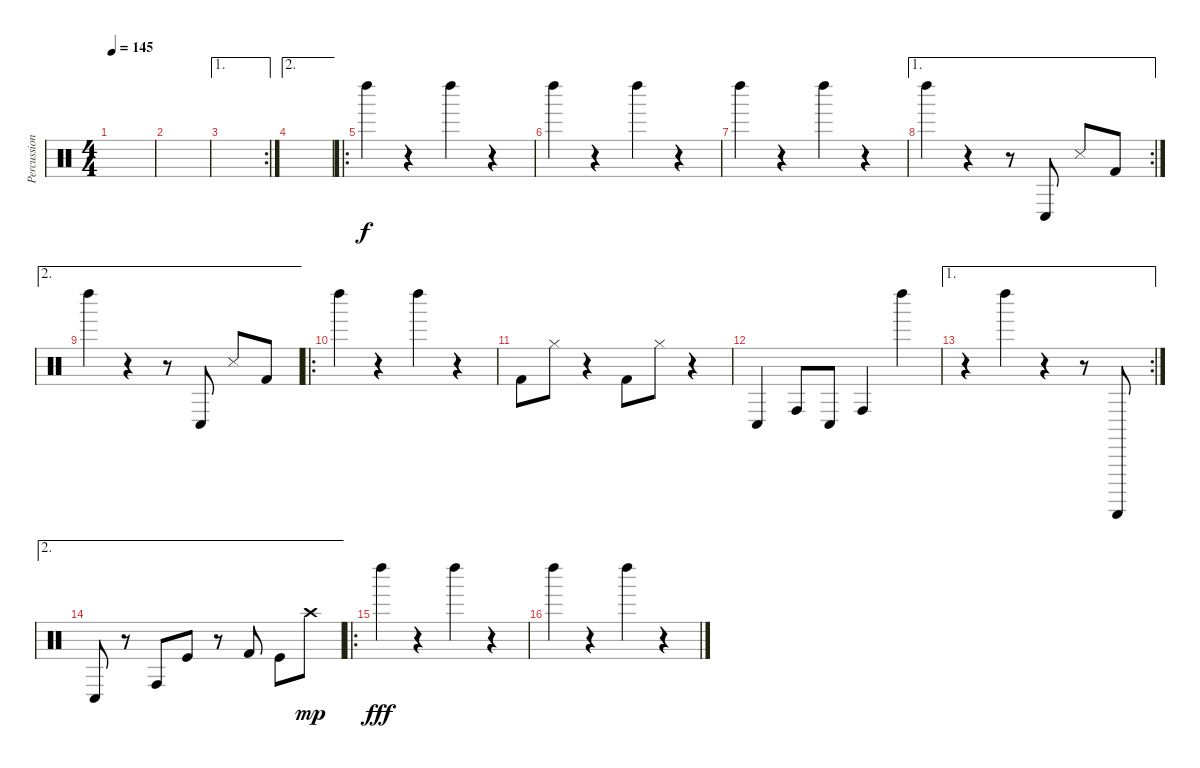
\track ("Percussions" "Percussion") {instrument percussion}
\staff {score}
\articulation defaults
\ts (4 4)
\tempo 145
\clef neutral
\ks c
|
|
\ae 1
\rc 2
|
\ae 2
|
\ro "Left Maraca (hit)".4{balance 14}
r.4 "Left Maraca (hit)".4{balance 14} r.4 |
"Left Maraca (hit)".4{balance 14} r.4 "Left Maraca (hit)".4{balance 14} r.4 |
"Left Maraca (hit)".4{balance 14} r.4 "Left Maraca (hit)".4{balance 14} r.4 |
\ae 1
\rc 2 "Left Maraca (hit)".4{balance 14}
r.4 r.8 "Conga low (hit)".8{balance 2} "Snare (side stick) 3".8{balance 4} "Kick (hit) 2".8{balance 6} |
\ae 2 "Left Maraca (hit)".4{balance 14}
r.4 r.8 "Conga low (hit)".8{balance 2} "Snare (side stick) 3".8{balance 4} "Kick (hit) 2".8{balance 6} |
\ro "Left Maraca (hit)".4{balance 14}
r.4 "Left Maraca (hit)".4{balance 14} r.4 |
"Kick (hit) 2".8{balance 10} "Hi-Hat (closed)".8{balance 6} r.4 "Kick (hit) 2".8{balance 10} "Hi-Hat (closed)".8{balance 6} r.4 |
"Conga low (hit)".4{balance 2} "Conga high (hit)".8{balance 4} "Conga low (hit)".8{balance 2} "Conga high (hit)".4{balance 4} "Left Maraca (hit)".4{balance 14} |
\ae 1
\rc 2
r.4 "Left Maraca (hit)".4{balance 14} r.4 r.8 "Guiro (scrap-return)".8{balance 0} |
\ae 2 "Conga low (hit)".8{balance 2}
r.8 "Conga high (hit)".8{balance 4} "Kick (hit)".8{balance 12} r.8 "Kick (hit) 2".8{balance 10} "Kick (hit)".8{balance 12} "Crash high (hit)".8{dy mp balance 16} |
\ro "Left Maraca (hit)".4{dy fff balance 14}
r.4 "Left Maraca (hit)".4{balance 14} r.4 |
"Left Maraca (hit)".4{balance 14} r.4 "Left Maraca (hit)".4{balance 14} r.4
